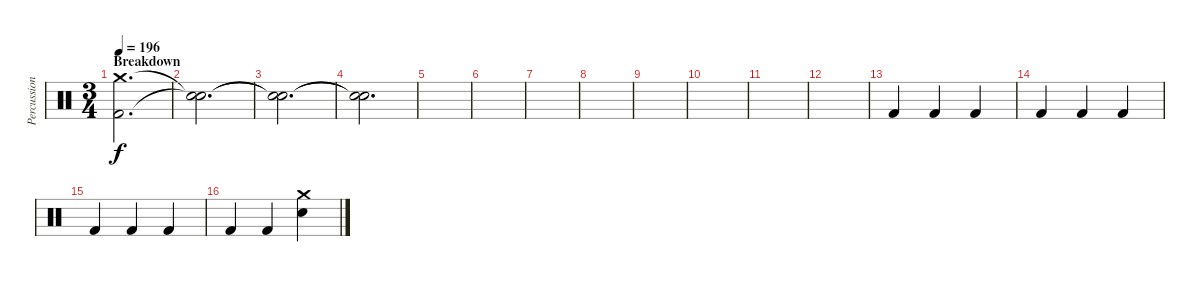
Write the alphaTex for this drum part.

\track ("Percussion" "Percussion") {instrument percussion}
\staff {score}
\articulation defaults
\ts (3 4)
\section ("" "Breakdown")
\tempo 196
\clef neutral
\ks c
("Crash medium (hit)" "Kick (hit) 2").2{d dy f} |
("Snare (hit)"{t} "Snare (hit)"{t}).2{d} |
("Snare (hit)"{t} "Snare (hit)"{t}).2{d} |
("Snare (hit)"{t} "Snare (hit)"{t}).2{d} |
|
|
|
|
|
|
|
|
"Kick (hit) 2".4 "Kick (hit) 2".4 "Kick (hit) 2".4 |
"Kick (hit) 2".4 "Kick (hit) 2".4 "Kick (hit) 2".4 |
"Kick (hit) 2".4 "Kick (hit) 2".4 "Kick (hit) 2".4 |
"Kick (hit) 2".4 "Kick (hit) 2".4 ("Crash medium (hit)" "Electric Snare (hit)").4
